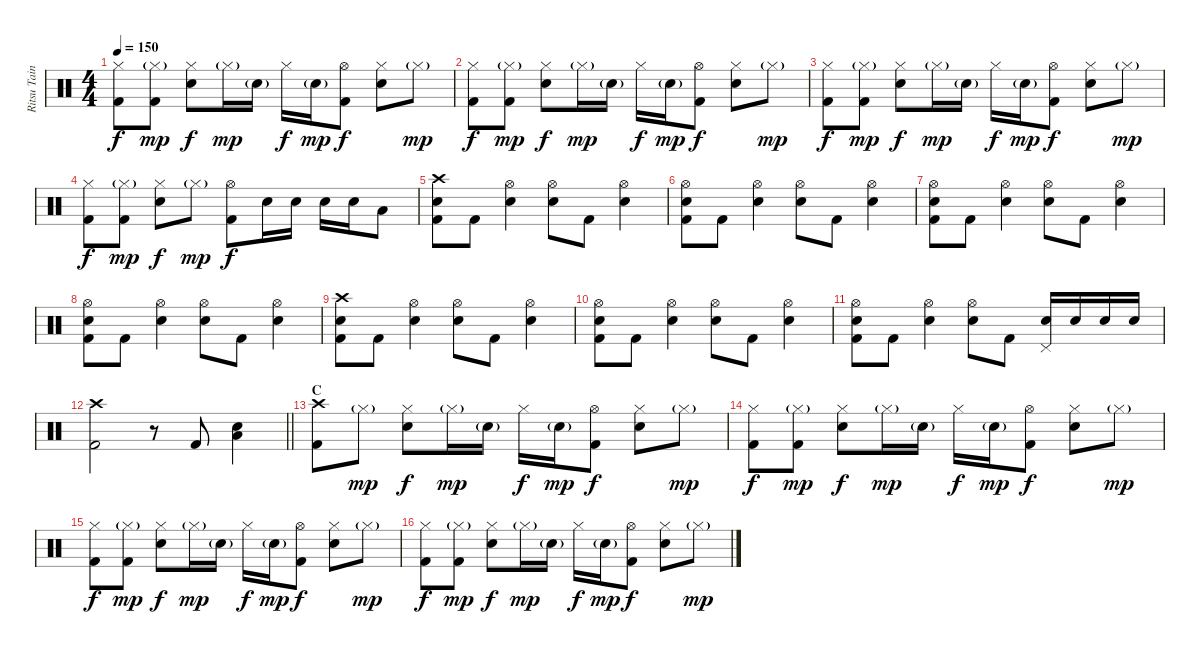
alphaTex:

\track ("Ritsu Tainaka" "Ritsu Tain") {instrument percussion}
\staff {score}
\articulation defaults
\ts (4 4)
\tempo 150
\clef neutral
\ks c
("Hi-Hat (closed)" "Kick (hit) 2").8{dy f} ("Hi-Hat (closed)"{g} "Kick (hit) 2").8{dy mp} ("Hi-Hat (closed)" "Electric Snare (hit)").8{dy f} "Hi-Hat (closed)"{g}.16{dy mp} "Electric Snare (hit)"{g}.16 "Hi-Hat (closed)".16{dy f} "Electric Snare (hit)"{g}.16{dy mp} ("Hi-Hat (open)" "Kick (hit) 2").8{dy f} ("Hi-Hat (closed)" "Electric Snare (hit)").8 "Hi-Hat (closed)"{g}.8{dy mp} |
("Hi-Hat (closed)" "Kick (hit) 2").8{dy f} ("Hi-Hat (closed)"{g} "Kick (hit) 2").8{dy mp} ("Hi-Hat (closed)" "Electric Snare (hit)").8{dy f} "Hi-Hat (closed)"{g}.16{dy mp} "Electric Snare (hit)"{g}.16 "Hi-Hat (closed)".16{dy f} "Electric Snare (hit)"{g}.16{dy mp} ("Hi-Hat (open)" "Kick (hit) 2").8{dy f} ("Hi-Hat (closed)" "Electric Snare (hit)").8 "Hi-Hat (closed)"{g}.8{dy mp} |
("Hi-Hat (closed)" "Kick (hit) 2").8{dy f} ("Hi-Hat (closed)"{g} "Kick (hit) 2").8{dy mp} ("Hi-Hat (closed)" "Electric Snare (hit)").8{dy f} "Hi-Hat (closed)"{g}.16{dy mp} "Electric Snare (hit)"{g}.16 "Hi-Hat (closed)".16{dy f} "Electric Snare (hit)"{g}.16{dy mp} ("Hi-Hat (open)" "Kick (hit) 2").8{dy f} ("Hi-Hat (closed)" "Electric Snare (hit)").8 "Hi-Hat (closed)"{g}.8{dy mp} |
("Hi-Hat (closed)" "Kick (hit) 2").8{dy f} ("Hi-Hat (closed)"{g} "Kick (hit) 2").8{dy mp} ("Hi-Hat (closed)" "Electric Snare (hit)").8{dy f} "Hi-Hat (closed)"{g}.8{dy mp} ("Hi-Hat (open)" "Kick (hit) 2").8{dy f} "Electric Snare (hit)".16 "Electric Snare (hit)".16 "Electric Snare (hit)".16 "Electric Snare (hit)".16 "Low Tom (hit)".8 |
("Crash high (hit)" "Electric Snare (hit)" "Kick (hit) 2").8 "Kick (hit) 2".8 ("Hi-Hat (open)" "Electric Snare (hit)").4 ("Hi-Hat (open)" "Electric Snare (hit)").8 "Kick (hit) 2".8 ("Hi-Hat (open)" "Electric Snare (hit)").4 |
("Hi-Hat (open)" "Electric Snare (hit)" "Kick (hit) 2").8 "Kick (hit) 2".8 ("Hi-Hat (open)" "Electric Snare (hit)").4 ("Hi-Hat (open)" "Electric Snare (hit)").8 "Kick (hit) 2".8 ("Hi-Hat (open)" "Electric Snare (hit)").4 |
("Hi-Hat (open)" "Electric Snare (hit)" "Kick (hit) 2").8 "Kick (hit) 2".8 ("Hi-Hat (open)" "Electric Snare (hit)").4 ("Hi-Hat (open)" "Electric Snare (hit)").8 "Kick (hit) 2".8 ("Hi-Hat (open)" "Electric Snare (hit)").4 |
("Hi-Hat (open)" "Electric Snare (hit)" "Kick (hit) 2").8 "Kick (hit) 2".8 ("Hi-Hat (open)" "Electric Snare (hit)").4 ("Hi-Hat (open)" "Electric Snare (hit)").8 "Kick (hit) 2".8 ("Hi-Hat (open)" "Electric Snare (hit)").4 |
("Crash high (hit)" "Electric Snare (hit)" "Kick (hit) 2").8 "Kick (hit) 2".8 ("Hi-Hat (open)" "Electric Snare (hit)").4 ("Hi-Hat (open)" "Electric Snare (hit)").8 "Kick (hit) 2".8 ("Hi-Hat (open)" "Electric Snare (hit)").4 |
("Hi-Hat (open)" "Electric Snare (hit)" "Kick (hit) 2").8 "Kick (hit) 2".8 ("Hi-Hat (open)" "Electric Snare (hit)").4 ("Hi-Hat (open)" "Electric Snare (hit)").8 "Kick (hit) 2".8 ("Hi-Hat (open)" "Electric Snare (hit)").4 |
("Hi-Hat (open)" "Electric Snare (hit)" "Kick (hit) 2").8 "Kick (hit) 2".8 ("Hi-Hat (open)" "Electric Snare (hit)").4 ("Hi-Hat (open)" "Electric Snare (hit)").8 "Kick (hit) 2".8 ("Pedal Hi-Hat (hit)" "Electric Snare (hit)").16 "Electric Snare (hit)".16 "Electric Snare (hit)".16 "Electric Snare (hit)".16 |
\barLineRight lightlight
("Crash high (hit)" "Kick (hit) 2").2 r.8 "Kick (hit) 2".8 ("Electric Snare (hit)" "Low Floor Tom (hit)").4 |
\section ("" "C")
("Crash high (hit)" "Kick (hit) 2").8 "Hi-Hat (closed)"{g}.8{dy mp} ("Hi-Hat (closed)" "Electric Snare (hit)").8{dy f} "Hi-Hat (closed)"{g}.16{dy mp} "Electric Snare (hit)"{g}.16 "Hi-Hat (closed)".16{dy f} "Electric Snare (hit)"{g}.16{dy mp} ("Hi-Hat (open)" "Kick (hit) 2").8{dy f} ("Hi-Hat (closed)" "Electric Snare (hit)").8 "Hi-Hat (closed)"{g}.8{dy mp} |
("Hi-Hat (closed)" "Kick (hit) 2").8{dy f} ("Hi-Hat (closed)"{g} "Kick (hit) 2").8{dy mp} ("Hi-Hat (closed)" "Electric Snare (hit)").8{dy f} "Hi-Hat (closed)"{g}.16{dy mp} "Electric Snare (hit)"{g}.16 "Hi-Hat (closed)".16{dy f} "Electric Snare (hit)"{g}.16{dy mp} ("Hi-Hat (open)" "Kick (hit) 2").8{dy f} ("Hi-Hat (closed)" "Electric Snare (hit)").8 "Hi-Hat (closed)"{g}.8{dy mp} |
("Hi-Hat (closed)" "Kick (hit) 2").8{dy f} ("Hi-Hat (closed)"{g} "Kick (hit) 2").8{dy mp} ("Hi-Hat (closed)" "Electric Snare (hit)").8{dy f} "Hi-Hat (closed)"{g}.16{dy mp} "Electric Snare (hit)"{g}.16 "Hi-Hat (closed)".16{dy f} "Electric Snare (hit)"{g}.16{dy mp} ("Hi-Hat (open)" "Kick (hit) 2").8{dy f} ("Hi-Hat (closed)" "Electric Snare (hit)").8 "Hi-Hat (closed)"{g}.8{dy mp} |
("Hi-Hat (closed)" "Kick (hit) 2").8{dy f} ("Hi-Hat (closed)"{g} "Kick (hit) 2").8{dy mp} ("Hi-Hat (closed)" "Electric Snare (hit)").8{dy f} "Hi-Hat (closed)"{g}.16{dy mp} "Electric Snare (hit)"{g}.16 "Hi-Hat (closed)".16{dy f} "Electric Snare (hit)"{g}.16{dy mp} ("Hi-Hat (open)" "Kick (hit) 2").8{dy f} ("Hi-Hat (closed)" "Electric Snare (hit)").8 "Hi-Hat (closed)"{g}.8{dy mp}
